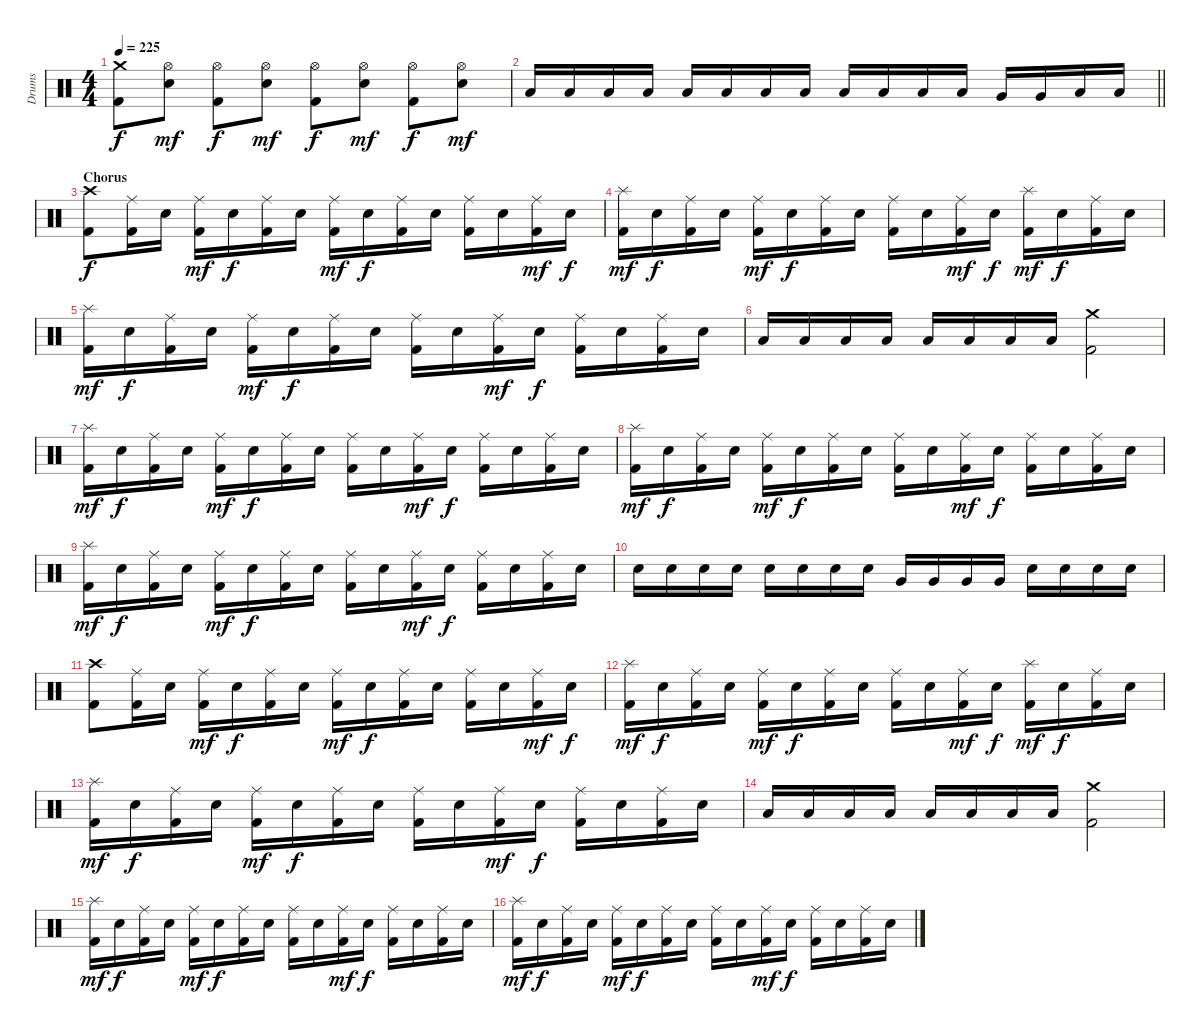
\track ("Drums" "Drums") {instrument percussion}
\staff {score}
\articulation defaults
\ts (4 4)
\tempo 225
\clef neutral
\ks c
("Crash medium (hit)" "Kick (hit) 2").8{dy f} ("Hi-Hat (open)" "Snare (hit) 2").8{dy mf} ("Hi-Hat (open)" "Kick (hit) 2").8{dy f} ("Hi-Hat (open)" "Snare (hit) 2").8{dy mf} ("Hi-Hat (open)" "Kick (hit) 2").8{dy f} ("Hi-Hat (open)" "Snare (hit) 2").8{dy mf} ("Hi-Hat (open)" "Kick (hit) 2").8{dy f} ("Hi-Hat (open)" "Snare (hit) 2").8{dy mf} |
\barLineRight lightlight "Low Tom (hit)".16 "Low Tom (hit)".16 "Low Tom (hit)".16 "Low Tom (hit)".16 "Low Tom (hit)".16 "Low Tom (hit)".16 "Low Tom (hit)".16 "Low Tom (hit)".16 "Low Tom (hit)".16 "Low Tom (hit)".16 "Low Tom (hit)".16 "Low Tom (hit)".16 "Very Low Tom (hit)".16 "Very Low Tom (hit)".16 "Low Floor Tom (hit)".16 "Low Floor Tom (hit)".16
|
\section ("" "Chorus")
("Crash high (hit)" "Kick (hit) 2").8{dy f} ("Ride (middle)" "Kick (hit) 2").16 "Snare (hit) 2".16 ("Ride (middle)" "Kick (hit) 2").16{dy mf} "Snare (hit) 2".16{dy f} ("Ride (middle)" "Kick (hit) 2").16 "Snare (hit) 2".16 ("Ride (middle)" "Kick (hit) 2").16{dy mf} "Snare (hit) 2".16{dy f} ("Ride (middle)" "Kick (hit) 2").16 "Snare (hit) 2".16 ("Ride (middle)" "Kick (hit) 2").16 "Snare (hit) 2".16 ("Ride (middle)" "Kick (hit) 2").16{dy mf} "Snare (hit) 2".16{dy f} |
("Splash (hit)" "Kick (hit) 2").16{dy mf} "Snare (hit) 2".16{dy f} ("Ride (middle)" "Kick (hit) 2").16 "Snare (hit) 2".16 ("Ride (middle)" "Kick (hit) 2").16{dy mf} "Snare (hit) 2".16{dy f} ("Ride (middle)" "Kick (hit) 2").16 "Snare (hit) 2".16 ("Ride (middle)" "Kick (hit) 2").16 "Snare (hit) 2".16 ("Ride (middle)" "Kick (hit) 2").16{dy mf} "Snare (hit) 2".16{dy f} ("Splash (hit)" "Kick (hit) 2").16{dy mf} "Snare (hit) 2".16{dy f} ("Ride (middle)" "Kick (hit) 2").16 "Snare (hit) 2".16 |
("Splash (hit)" "Kick (hit) 2").16{dy mf} "Snare (hit) 2".16{dy f} ("Ride (middle)" "Kick (hit) 2").16 "Snare (hit) 2".16 ("Ride (middle)" "Kick (hit) 2").16{dy mf} "Snare (hit) 2".16{dy f} ("Ride (middle)" "Kick (hit) 2").16 "Snare (hit) 2".16 ("Ride (middle)" "Kick (hit) 2").16 "Snare (hit) 2".16 ("Ride (middle)" "Kick (hit) 2").16{dy mf} "Snare (hit) 2".16{dy f} ("Ride (middle)" "Kick (hit) 2").16 "Snare (hit) 2".16 ("Ride (middle)" "Kick (hit) 2").16 "Snare (hit) 2".16 |
"Low Tom (hit)".16 "Low Tom (hit)".16 "Low Tom (hit)".16 "Low Tom (hit)".16 "Low Tom (hit)".16 "Low Tom (hit)".16 "Low Tom (hit)".16 "Low Tom (hit)".16 ("Crash medium (hit)" "Kick (hit) 2").2 |
("Splash (hit)" "Kick (hit) 2").16{dy mf} "Snare (hit) 2".16{dy f} ("Ride (middle)" "Kick (hit) 2").16 "Snare (hit) 2".16 ("Ride (middle)" "Kick (hit) 2").16{dy mf} "Snare (hit) 2".16{dy f} ("Ride (middle)" "Kick (hit) 2").16 "Snare (hit) 2".16 ("Ride (middle)" "Kick (hit) 2").16 "Snare (hit) 2".16 ("Ride (middle)" "Kick (hit) 2").16{dy mf} "Snare (hit) 2".16{dy f} ("Ride (middle)" "Kick (hit) 2").16 "Snare (hit) 2".16 ("Ride (middle)" "Kick (hit) 2").16 "Snare (hit) 2".16 |
("Splash (hit)" "Kick (hit) 2").16{dy mf} "Snare (hit) 2".16{dy f} ("Ride (middle)" "Kick (hit) 2").16 "Snare (hit) 2".16 ("Ride (middle)" "Kick (hit) 2").16{dy mf} "Snare (hit) 2".16{dy f} ("Ride (middle)" "Kick (hit) 2").16 "Snare (hit) 2".16 ("Ride (middle)" "Kick (hit) 2").16 "Snare (hit) 2".16 ("Ride (middle)" "Kick (hit) 2").16{dy mf} "Snare (hit) 2".16{dy f} ("Ride (middle)" "Kick (hit) 2").16 "Snare (hit) 2".16 ("Ride (middle)" "Kick (hit) 2").16 "Snare (hit) 2".16 |
("Splash (hit)" "Kick (hit) 2").16{dy mf} "Snare (hit) 2".16{dy f} ("Ride (middle)" "Kick (hit) 2").16 "Snare (hit) 2".16 ("Ride (middle)" "Kick (hit) 2").16{dy mf} "Snare (hit) 2".16{dy f} ("Ride (middle)" "Kick (hit) 2").16 "Snare (hit) 2".16 ("Ride (middle)" "Kick (hit) 2").16 "Snare (hit) 2".16 ("Ride (middle)" "Kick (hit) 2").16{dy mf} "Snare (hit) 2".16{dy f} ("Ride (middle)" "Kick (hit) 2").16 "Snare (hit) 2".16 ("Ride (middle)" "Kick (hit) 2").16 "Snare (hit) 2".16 |
"Snare (hit) 2".16 "Snare (hit) 2".16 "Snare (hit) 2".16 "Snare (hit) 2".16 "Snare (hit) 2".16 "Snare (hit) 2".16 "Snare (hit) 2".16 "Snare (hit) 2".16 "Very Low Tom (hit)".16 "Very Low Tom (hit)".16 "Very Low Tom (hit)".16 "Very Low Tom (hit)".16 "Snare (hit) 2".16 "Snare (hit) 2".16 "Snare (hit) 2".16 "Snare (hit) 2".16 |
("Crash high (hit)" "Kick (hit) 2").8 ("Ride (middle)" "Kick (hit) 2").16 "Snare (hit) 2".16 ("Ride (middle)" "Kick (hit) 2").16{dy mf} "Snare (hit) 2".16{dy f} ("Ride (middle)" "Kick (hit) 2").16 "Snare (hit) 2".16 ("Ride (middle)" "Kick (hit) 2").16{dy mf} "Snare (hit) 2".16{dy f} ("Ride (middle)" "Kick (hit) 2").16 "Snare (hit) 2".16 ("Ride (middle)" "Kick (hit) 2").16 "Snare (hit) 2".16 ("Ride (middle)" "Kick (hit) 2").16{dy mf} "Snare (hit) 2".16{dy f} |
("Splash (hit)" "Kick (hit) 2").16{dy mf} "Snare (hit) 2".16{dy f} ("Ride (middle)" "Kick (hit) 2").16 "Snare (hit) 2".16 ("Ride (middle)" "Kick (hit) 2").16{dy mf} "Snare (hit) 2".16{dy f} ("Ride (middle)" "Kick (hit) 2").16 "Snare (hit) 2".16 ("Ride (middle)" "Kick (hit) 2").16 "Snare (hit) 2".16 ("Ride (middle)" "Kick (hit) 2").16{dy mf} "Snare (hit) 2".16{dy f} ("Splash (hit)" "Kick (hit) 2").16{dy mf} "Snare (hit) 2".16{dy f} ("Ride (middle)" "Kick (hit) 2").16 "Snare (hit) 2".16 |
("Splash (hit)" "Kick (hit) 2").16{dy mf} "Snare (hit) 2".16{dy f} ("Ride (middle)" "Kick (hit) 2").16 "Snare (hit) 2".16 ("Ride (middle)" "Kick (hit) 2").16{dy mf} "Snare (hit) 2".16{dy f} ("Ride (middle)" "Kick (hit) 2").16 "Snare (hit) 2".16 ("Ride (middle)" "Kick (hit) 2").16 "Snare (hit) 2".16 ("Ride (middle)" "Kick (hit) 2").16{dy mf} "Snare (hit) 2".16{dy f} ("Ride (middle)" "Kick (hit) 2").16 "Snare (hit) 2".16 ("Ride (middle)" "Kick (hit) 2").16 "Snare (hit) 2".16 |
"Low Tom (hit)".16 "Low Tom (hit)".16 "Low Tom (hit)".16 "Low Tom (hit)".16 "Low Tom (hit)".16 "Low Tom (hit)".16 "Low Tom (hit)".16 "Low Tom (hit)".16 ("Crash medium (hit)" "Kick (hit) 2").2 |
("Splash (hit)" "Kick (hit) 2").16{dy mf} "Snare (hit) 2".16{dy f} ("Ride (middle)" "Kick (hit) 2").16 "Snare (hit) 2".16 ("Ride (middle)" "Kick (hit) 2").16{dy mf} "Snare (hit) 2".16{dy f} ("Ride (middle)" "Kick (hit) 2").16 "Snare (hit) 2".16 ("Ride (middle)" "Kick (hit) 2").16 "Snare (hit) 2".16 ("Ride (middle)" "Kick (hit) 2").16{dy mf} "Snare (hit) 2".16{dy f} ("Ride (middle)" "Kick (hit) 2").16 "Snare (hit) 2".16 ("Ride (middle)" "Kick (hit) 2").16 "Snare (hit) 2".16 |
("Splash (hit)" "Kick (hit) 2").16{dy mf} "Snare (hit) 2".16{dy f} ("Ride (middle)" "Kick (hit) 2").16 "Snare (hit) 2".16 ("Ride (middle)" "Kick (hit) 2").16{dy mf} "Snare (hit) 2".16{dy f} ("Ride (middle)" "Kick (hit) 2").16 "Snare (hit) 2".16 ("Ride (middle)" "Kick (hit) 2").16 "Snare (hit) 2".16 ("Ride (middle)" "Kick (hit) 2").16{dy mf} "Snare (hit) 2".16{dy f} ("Ride (middle)" "Kick (hit) 2").16 "Snare (hit) 2".16 ("Ride (middle)" "Kick (hit) 2").16 "Snare (hit) 2".16
